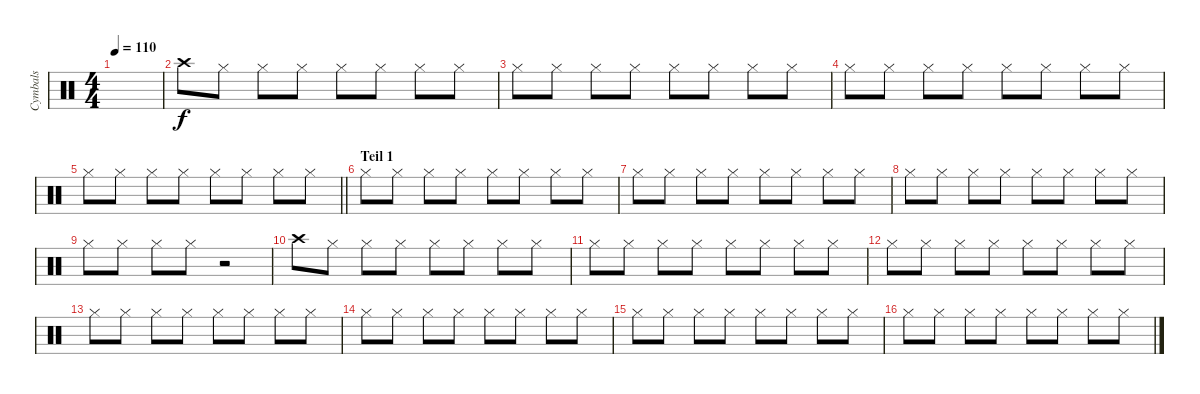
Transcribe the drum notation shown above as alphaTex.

\track ("Cymbals" "Cymbals") {instrument percussion}
\staff {score}
\articulation defaults
\ts (4 4)
\tempo 110
\clef neutral
\ks c
|
"Crash high (hit)".8 "Hi-Hat (closed)".8 "Hi-Hat (closed)".8 "Hi-Hat (closed)".8 "Hi-Hat (closed)".8 "Hi-Hat (closed)".8 "Hi-Hat (closed)".8 "Hi-Hat (closed)".8 |
"Hi-Hat (closed)".8 "Hi-Hat (closed)".8 "Hi-Hat (closed)".8 "Hi-Hat (closed)".8 "Hi-Hat (closed)".8 "Hi-Hat (closed)".8 "Hi-Hat (closed)".8 "Hi-Hat (closed)".8 |
"Hi-Hat (closed)".8 "Hi-Hat (closed)".8 "Hi-Hat (closed)".8 "Hi-Hat (closed)".8 "Hi-Hat (closed)".8 "Hi-Hat (closed)".8 "Hi-Hat (closed)".8 "Hi-Hat (closed)".8 |
\barLineRight lightlight "Hi-Hat (closed)".8 "Hi-Hat (closed)".8 "Hi-Hat (closed)".8 "Hi-Hat (closed)".8 "Hi-Hat (closed)".8 "Hi-Hat (closed)".8 "Hi-Hat (closed)".8 "Hi-Hat (closed)".8
|
\section ("" "Teil 1")
"Hi-Hat (closed)".8 "Hi-Hat (closed)".8 "Hi-Hat (closed)".8 "Hi-Hat (closed)".8 "Hi-Hat (closed)".8 "Hi-Hat (closed)".8 "Hi-Hat (closed)".8 "Hi-Hat (closed)".8 |
"Hi-Hat (closed)".8 "Hi-Hat (closed)".8 "Hi-Hat (closed)".8 "Hi-Hat (closed)".8 "Hi-Hat (closed)".8 "Hi-Hat (closed)".8 "Hi-Hat (closed)".8 "Hi-Hat (closed)".8 |
"Hi-Hat (closed)".8 "Hi-Hat (closed)".8 "Hi-Hat (closed)".8 "Hi-Hat (closed)".8 "Hi-Hat (closed)".8 "Hi-Hat (closed)".8 "Hi-Hat (closed)".8 "Hi-Hat (closed)".8 |
"Hi-Hat (closed)".8 "Hi-Hat (closed)".8 "Hi-Hat (closed)".8 "Hi-Hat (closed)".8 r.2 |
"Crash high (hit)".8 "Hi-Hat (closed)".8 "Hi-Hat (closed)".8 "Hi-Hat (closed)".8 "Hi-Hat (closed)".8 "Hi-Hat (closed)".8 "Hi-Hat (closed)".8 "Hi-Hat (closed)".8 |
"Hi-Hat (closed)".8 "Hi-Hat (closed)".8 "Hi-Hat (closed)".8 "Hi-Hat (closed)".8 "Hi-Hat (closed)".8 "Hi-Hat (closed)".8 "Hi-Hat (closed)".8 "Hi-Hat (closed)".8 |
"Hi-Hat (closed)".8 "Hi-Hat (closed)".8 "Hi-Hat (closed)".8 "Hi-Hat (closed)".8 "Hi-Hat (closed)".8 "Hi-Hat (closed)".8 "Hi-Hat (closed)".8 "Hi-Hat (closed)".8 |
"Hi-Hat (closed)".8 "Hi-Hat (closed)".8 "Hi-Hat (closed)".8 "Hi-Hat (closed)".8 "Hi-Hat (closed)".8 "Hi-Hat (closed)".8 "Hi-Hat (closed)".8 "Hi-Hat (closed)".8 |
"Hi-Hat (closed)".8 "Hi-Hat (closed)".8 "Hi-Hat (closed)".8 "Hi-Hat (closed)".8 "Hi-Hat (closed)".8 "Hi-Hat (closed)".8 "Hi-Hat (closed)".8 "Hi-Hat (closed)".8 |
"Hi-Hat (closed)".8 "Hi-Hat (closed)".8 "Hi-Hat (closed)".8 "Hi-Hat (closed)".8 "Hi-Hat (closed)".8 "Hi-Hat (closed)".8 "Hi-Hat (closed)".8 "Hi-Hat (closed)".8 |
"Hi-Hat (closed)".8 "Hi-Hat (closed)".8 "Hi-Hat (closed)".8 "Hi-Hat (closed)".8 "Hi-Hat (closed)".8 "Hi-Hat (closed)".8 "Hi-Hat (closed)".8 "Hi-Hat (closed)".8
